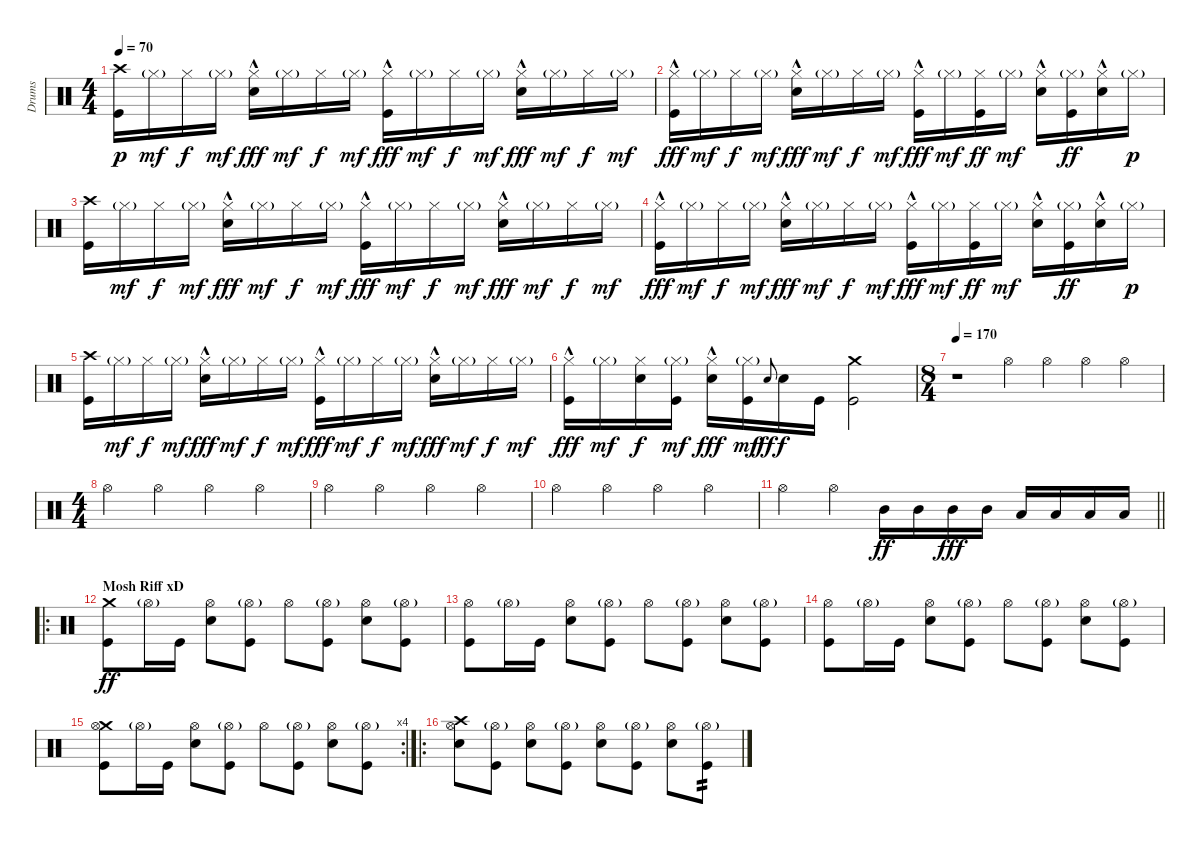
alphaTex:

\track ("Drums" "Drums") {instrument percussion}
\staff {score}
\articulation defaults
\ts (4 4)
\tempo 70
\clef neutral
\ks c
("Crash high (hit)" "Kick (hit)").16{dy p} "Hi-Hat (closed)"{g}.16{dy mf} "Hi-Hat (closed)".16{dy f} "Hi-Hat (closed)"{g}.16{dy mf} ("Hi-Hat (closed)"{hac} "Electric Snare (hit)").16{dy fff} "Hi-Hat (closed)"{g}.16{dy mf} "Hi-Hat (closed)".16{dy f} "Hi-Hat (closed)"{g}.16{dy mf} ("Hi-Hat (closed)"{hac} "Kick (hit)").16{dy fff} "Hi-Hat (closed)"{g}.16{dy mf} "Hi-Hat (closed)".16{dy f} "Hi-Hat (closed)"{g}.16{dy mf} ("Hi-Hat (closed)"{hac} "Electric Snare (hit)").16{dy fff} "Hi-Hat (closed)"{g}.16{dy mf} "Hi-Hat (closed)".16{dy f} "Hi-Hat (closed)"{g}.16{dy mf} |
("Hi-Hat (closed)"{hac} "Kick (hit)").16{dy fff} "Hi-Hat (closed)"{g}.16{dy mf} "Hi-Hat (closed)".16{dy f} "Hi-Hat (closed)"{g}.16{dy mf} ("Hi-Hat (closed)"{hac} "Electric Snare (hit)").16{dy fff} "Hi-Hat (closed)"{g}.16{dy mf} "Hi-Hat (closed)".16{dy f} "Hi-Hat (closed)"{g}.16{dy mf} ("Hi-Hat (closed)"{hac} "Kick (hit)").16{dy fff} "Hi-Hat (closed)"{g}.16{dy mf} ("Hi-Hat (closed)" "Kick (hit)").16{dy ff} "Hi-Hat (closed)"{g}.16{dy mf} ("Hi-Hat (closed)"{hac} "Electric Snare (hit)").16 ("Hi-Hat (closed)"{g} "Kick (hit)").16{dy ff} ("Hi-Hat (closed)"{hac} "Electric Snare (hit)").16 "Hi-Hat (closed)"{g}.16{dy p} |
("Crash high (hit)" "Kick (hit)").16 "Hi-Hat (closed)"{g}.16{dy mf} "Hi-Hat (closed)".16{dy f} "Hi-Hat (closed)"{g}.16{dy mf} ("Hi-Hat (closed)"{hac} "Electric Snare (hit)").16{dy fff} "Hi-Hat (closed)"{g}.16{dy mf} "Hi-Hat (closed)".16{dy f} "Hi-Hat (closed)"{g}.16{dy mf} ("Hi-Hat (closed)"{hac} "Kick (hit)").16{dy fff} "Hi-Hat (closed)"{g}.16{dy mf} "Hi-Hat (closed)".16{dy f} "Hi-Hat (closed)"{g}.16{dy mf} ("Hi-Hat (closed)"{hac} "Electric Snare (hit)").16{dy fff} "Hi-Hat (closed)"{g}.16{dy mf} "Hi-Hat (closed)".16{dy f} "Hi-Hat (closed)"{g}.16{dy mf} |
("Hi-Hat (closed)"{hac} "Kick (hit)").16{dy fff} "Hi-Hat (closed)"{g}.16{dy mf} "Hi-Hat (closed)".16{dy f} "Hi-Hat (closed)"{g}.16{dy mf} ("Hi-Hat (closed)"{hac} "Electric Snare (hit)").16{dy fff} "Hi-Hat (closed)"{g}.16{dy mf} "Hi-Hat (closed)".16{dy f} "Hi-Hat (closed)"{g}.16{dy mf} ("Hi-Hat (closed)"{hac} "Kick (hit)").16{dy fff} "Hi-Hat (closed)"{g}.16{dy mf} ("Hi-Hat (closed)" "Kick (hit)").16{dy ff} "Hi-Hat (closed)"{g}.16{dy mf} ("Hi-Hat (closed)"{hac} "Electric Snare (hit)").16 ("Hi-Hat (closed)"{g} "Kick (hit)").16{dy ff} ("Hi-Hat (closed)"{hac} "Electric Snare (hit)").16 "Hi-Hat (closed)"{g}.16{dy p} |
("Crash high (hit)" "Kick (hit)").16 "Hi-Hat (closed)"{g}.16{dy mf} "Hi-Hat (closed)".16{dy f} "Hi-Hat (closed)"{g}.16{dy mf} ("Hi-Hat (closed)"{hac} "Electric Snare (hit)").16{dy fff} "Hi-Hat (closed)"{g}.16{dy mf} "Hi-Hat (closed)".16{dy f} "Hi-Hat (closed)"{g}.16{dy mf} ("Hi-Hat (closed)"{hac} "Kick (hit)").16{dy fff} "Hi-Hat (closed)"{g}.16{dy mf} "Hi-Hat (closed)".16{dy f} "Hi-Hat (closed)"{g}.16{dy mf} ("Hi-Hat (closed)"{hac} "Electric Snare (hit)").16{dy fff} "Hi-Hat (closed)"{g}.16{dy mf} "Hi-Hat (closed)".16{dy f} "Hi-Hat (closed)"{g}.16{dy mf} |
("Hi-Hat (closed)"{hac} "Kick (hit)").16{dy fff} "Hi-Hat (closed)"{g}.16{dy mf} ("Hi-Hat (closed)" "Electric Snare (hit)").16{dy f} ("Hi-Hat (closed)"{g} "Kick (hit)").16{dy mf} ("Hi-Hat (closed)"{hac} "Electric Snare (hit)").16{dy fff} ("Hi-Hat (closed)"{g} "Kick (hit)").16{dy mf} "Electric Snare (hit)".8{gr onbeat dy ff} "Electric Snare (hit)".16{dy f} "Kick (hit)".16 ("Crash medium (hit)" "Kick (hit)").2 |
\ts (8 4)
\tempo 170
r.1 "Hi-Hat (open)".4 "Hi-Hat (open)".4 "Hi-Hat (open)".4 "Hi-Hat (open)".4 |
\ts (4 4)
"Hi-Hat (open)".4 "Hi-Hat (open)".4 "Hi-Hat (open)".4 "Hi-Hat (open)".4 |
"Hi-Hat (open)".4 "Hi-Hat (open)".4 "Hi-Hat (open)".4 "Hi-Hat (open)".4 |
"Hi-Hat (open)".4 "Hi-Hat (open)".4 "Hi-Hat (open)".4 "Hi-Hat (open)".4 |
\barLineRight lightlight "Hi-Hat (open)".4 "Hi-Hat (open)".4 "Mid Tom (hit)".16{dy ff volume 16} "Mid Tom (hit)".16 "Mid Tom (hit)".16{dy fff} "Mid Tom (hit)".16 "Low Tom (hit)".16 "Low Tom (hit)".16 "Low Tom (hit)".16 "Low Tom (hit)".16
|
\ro
\section ("" "Mosh Riff xD")
("Crash medium (hit)" "Kick (hit)").8{dy ff} "Hi-Hat (open)"{g}.16 "Kick (hit)".16 ("Hi-Hat (open)" "Electric Snare (hit)").8 ("Hi-Hat (open)"{g} "Kick (hit)").8 "Hi-Hat (open)".8 ("Hi-Hat (open)"{g} "Kick (hit)").8 ("Hi-Hat (open)" "Electric Snare (hit)").8 ("Hi-Hat (open)"{g} "Kick (hit)").8 |
("Hi-Hat (open)" "Kick (hit)").8 "Hi-Hat (open)"{g}.16 "Kick (hit)".16 ("Hi-Hat (open)" "Electric Snare (hit)").8 ("Hi-Hat (open)"{g} "Kick (hit)").8 "Hi-Hat (open)".8 ("Hi-Hat (open)"{g} "Kick (hit)").8 ("Hi-Hat (open)" "Electric Snare (hit)").8 ("Hi-Hat (open)"{g} "Kick (hit)").8 |
("Hi-Hat (open)" "Kick (hit)").8 "Hi-Hat (open)"{g}.16 "Kick (hit)".16 ("Hi-Hat (open)" "Electric Snare (hit)").8 ("Hi-Hat (open)"{g} "Kick (hit)").8 "Hi-Hat (open)".8 ("Hi-Hat (open)"{g} "Kick (hit)").8 ("Hi-Hat (open)" "Electric Snare (hit)").8 ("Hi-Hat (open)"{g} "Kick (hit)").8 |
\rc 4
("Crash medium (hit)" "Hi-Hat (open)" "Kick (hit)").8 "Hi-Hat (open)"{g}.16 "Kick (hit)".16 ("Hi-Hat (open)" "Electric Snare (hit)").8 ("Hi-Hat (open)"{g} "Kick (hit)").8 "Hi-Hat (open)".8 ("Hi-Hat (open)"{g} "Kick (hit)").8 ("Hi-Hat (open)" "Electric Snare (hit)").8 ("Hi-Hat (open)"{g} "Kick (hit)").8 |
\ro
("Crash high (hit)" "Hi-Hat (open)" "Electric Snare (hit)").8 ("Hi-Hat (open)"{g} "Kick (hit)").8 ("Hi-Hat (open)" "Electric Snare (hit)").8 ("Hi-Hat (open)"{g} "Kick (hit)").8 ("Hi-Hat (open)" "Electric Snare (hit)").8 ("Hi-Hat (open)"{g} "Kick (hit)").8 ("Hi-Hat (open)" "Electric Snare (hit)").8 ("Hi-Hat (open)"{g} "Kick (hit)").8{tp 2}
